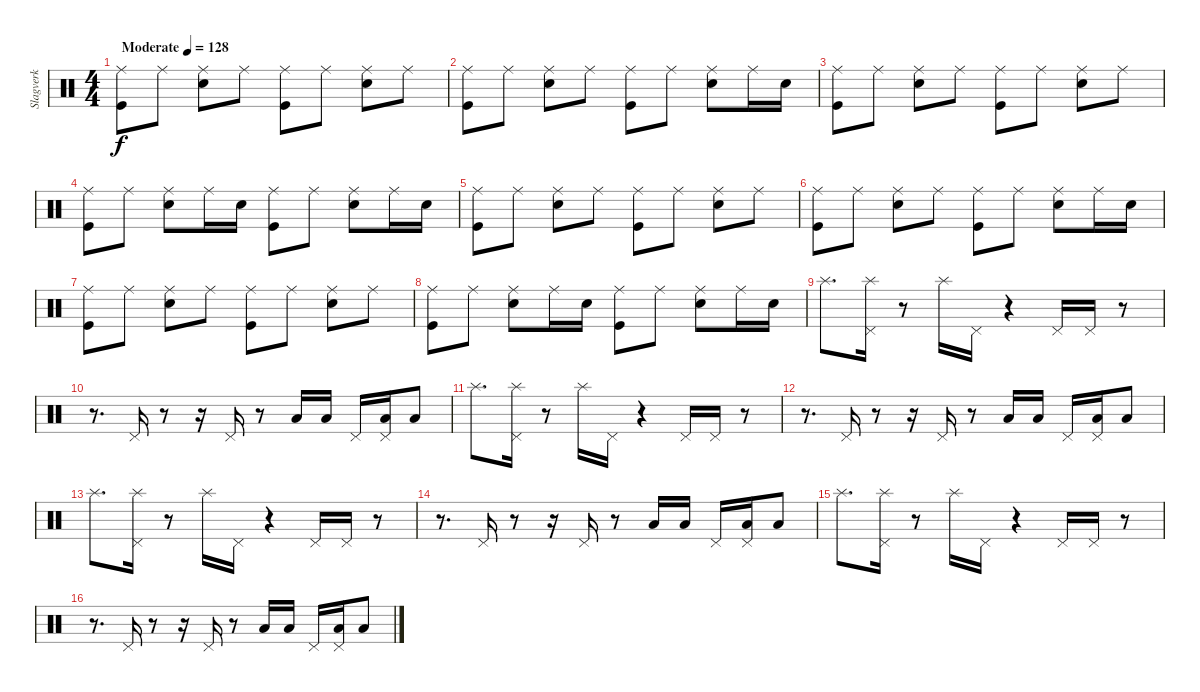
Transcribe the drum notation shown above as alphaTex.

\track ("Slagverk" "Slagverk") {instrument percussion}
\staff {score}
\articulation defaults
\ts (4 4)
\tempo (128 "Moderate")
\clef neutral
\ks c
("Kick (hit)" "Ride (middle)").8{dy f} "Ride (middle)".8 ("Snare (hit) 2" "Ride (middle)").8 "Ride (middle)".8 ("Kick (hit)" "Ride (middle)").8 "Ride (middle)".8 ("Snare (hit) 2" "Ride (middle)").8 "Ride (middle)".8 |
("Kick (hit)" "Ride (middle)").8 "Ride (middle)".8 ("Snare (hit) 2" "Ride (middle)").8 "Ride (middle)".8 ("Kick (hit)" "Ride (middle)").8 "Ride (middle)".8 ("Snare (hit) 2" "Ride (middle)").8 "Ride (middle)".16 "Snare (hit) 2".16 |
("Kick (hit)" "Ride (middle)").8 "Ride (middle)".8 ("Snare (hit) 2" "Ride (middle)").8 "Ride (middle)".8 ("Kick (hit)" "Ride (middle)").8 "Ride (middle)".8 ("Snare (hit) 2" "Ride (middle)").8 "Ride (middle)".8 |
("Kick (hit)" "Ride (middle)").8 "Ride (middle)".8 ("Snare (hit) 2" "Ride (middle)").8 "Ride (middle)".16 "Snare (hit) 2".16 ("Kick (hit)" "Ride (middle)").8 "Ride (middle)".8 ("Snare (hit) 2" "Ride (middle)").8 "Ride (middle)".16 "Snare (hit) 2".16 |
("Kick (hit)" "Ride (middle)").8 "Ride (middle)".8 ("Snare (hit) 2" "Ride (middle)").8 "Ride (middle)".8 ("Kick (hit)" "Ride (middle)").8 "Ride (middle)".8 ("Snare (hit) 2" "Ride (middle)").8 "Ride (middle)".8 |
("Kick (hit)" "Ride (middle)").8 "Ride (middle)".8 ("Snare (hit) 2" "Ride (middle)").8 "Ride (middle)".8 ("Kick (hit)" "Ride (middle)").8 "Ride (middle)".8 ("Snare (hit) 2" "Ride (middle)").8 "Ride (middle)".16 "Snare (hit) 2".16 |
("Kick (hit)" "Ride (middle)").8 "Ride (middle)".8 ("Snare (hit) 2" "Ride (middle)").8 "Ride (middle)".8 ("Kick (hit)" "Ride (middle)").8 "Ride (middle)".8 ("Snare (hit) 2" "Ride (middle)").8 "Ride (middle)".8 |
("Kick (hit)" "Ride (middle)").8 "Ride (middle)".8 ("Snare (hit) 2" "Ride (middle)").8 "Ride (middle)".16 "Snare (hit) 2".16 ("Kick (hit)" "Ride (middle)").8 "Ride (middle)".8 ("Snare (hit) 2" "Ride (middle)").8 "Ride (middle)".16 "Snare (hit) 2".16 |
"Splash (hit)".8{d} ("Pedal Hi-Hat (hit)" "Splash (hit)").16 r.8 "Splash (hit)".16 "Pedal Hi-Hat (hit)".16 r.4 "Pedal Hi-Hat (hit)".16 "Pedal Hi-Hat (hit)".16 r.8 |
r.8{d} "Pedal Hi-Hat (hit)".16 r.8 r.16 "Pedal Hi-Hat (hit)".16 r.8 "Low Floor Tom (hit)".16 "Low Floor Tom (hit)".16 "Pedal Hi-Hat (hit)".16 ("Low Floor Tom (hit)" "Pedal Hi-Hat (hit)").16 "Low Floor Tom (hit)".8 |
"Splash (hit)".8{d} ("Pedal Hi-Hat (hit)" "Splash (hit)").16 r.8 "Splash (hit)".16 "Pedal Hi-Hat (hit)".16 r.4 "Pedal Hi-Hat (hit)".16 "Pedal Hi-Hat (hit)".16 r.8 |
r.8{d} "Pedal Hi-Hat (hit)".16 r.8 r.16 "Pedal Hi-Hat (hit)".16 r.8 "Low Floor Tom (hit)".16 "Low Floor Tom (hit)".16 "Pedal Hi-Hat (hit)".16 ("Low Floor Tom (hit)" "Pedal Hi-Hat (hit)").16 "Low Floor Tom (hit)".8 |
"Splash (hit)".8{d} ("Pedal Hi-Hat (hit)" "Splash (hit)").16 r.8 "Splash (hit)".16 "Pedal Hi-Hat (hit)".16 r.4 "Pedal Hi-Hat (hit)".16 "Pedal Hi-Hat (hit)".16 r.8 |
r.8{d} "Pedal Hi-Hat (hit)".16 r.8 r.16 "Pedal Hi-Hat (hit)".16 r.8 "Low Floor Tom (hit)".16 "Low Floor Tom (hit)".16 "Pedal Hi-Hat (hit)".16 ("Low Floor Tom (hit)" "Pedal Hi-Hat (hit)").16 "Low Floor Tom (hit)".8 |
"Splash (hit)".8{d} ("Pedal Hi-Hat (hit)" "Splash (hit)").16 r.8 "Splash (hit)".16 "Pedal Hi-Hat (hit)".16 r.4 "Pedal Hi-Hat (hit)".16 "Pedal Hi-Hat (hit)".16 r.8 |
r.8{d} "Pedal Hi-Hat (hit)".16 r.8 r.16 "Pedal Hi-Hat (hit)".16 r.8 "Low Floor Tom (hit)".16 "Low Floor Tom (hit)".16 "Pedal Hi-Hat (hit)".16 ("Low Floor Tom (hit)" "Pedal Hi-Hat (hit)").16 "Low Floor Tom (hit)".8
